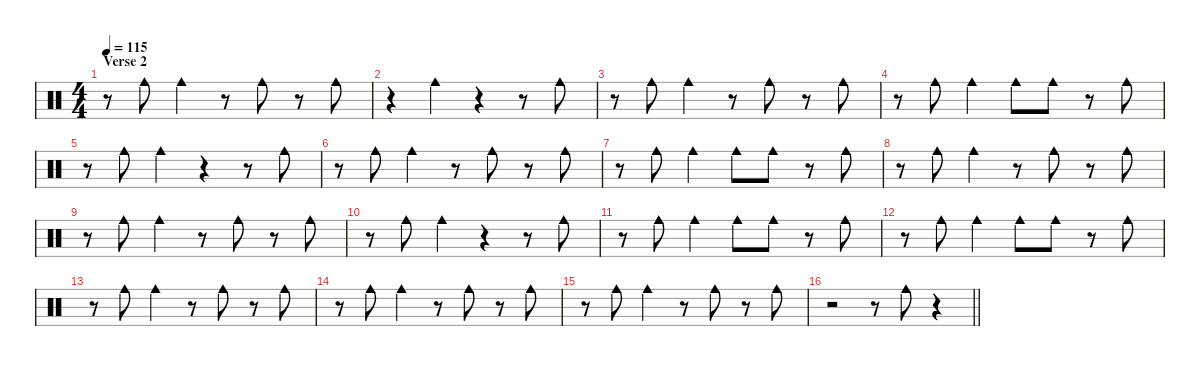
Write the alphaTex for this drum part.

\defaultSystemsLayout 4
\hideDynamics
\bracketExtendMode nobrackets
\singleTrackTrackNamePolicy hidden
\multiTrackTrackNamePolicy hidden
\otherSystemsTrackNameOrientation horizontal
\track ("Cowbell" "drm.") {defaultSystemsLayout 8 instrument percussion}
\staff {score}
\articulation defaults
\ts (4 4)
\section ("" "Verse 2")
\tempo 115
\clef neutral
\ks c
r.8{dy f} "Cowbell medium (hit)".8 "Cowbell medium (hit)".4 r.8 "Cowbell medium (hit)".8 r.8 "Cowbell medium (hit)".8 |
r.4 "Cowbell medium (hit)".4 r.4 r.8 "Cowbell medium (hit)".8 |
r.8 "Cowbell medium (hit)".8 "Cowbell medium (hit)".4 r.8 "Cowbell medium (hit)".8 r.8 "Cowbell medium (hit)".8 |
r.8 "Cowbell medium (hit)".8 "Cowbell medium (hit)".4 "Cowbell medium (hit)".8 "Cowbell medium (hit)".8 r.8 "Cowbell medium (hit)".8 |
r.8 "Cowbell medium (hit)".8 "Cowbell medium (hit)".4 r.4 r.8 "Cowbell medium (hit)".8 |
r.8 "Cowbell medium (hit)".8 "Cowbell medium (hit)".4 r.8 "Cowbell medium (hit)".8 r.8 "Cowbell medium (hit)".8 |
r.8 "Cowbell medium (hit)".8 "Cowbell medium (hit)".4 "Cowbell medium (hit)".8 "Cowbell medium (hit)".8 r.8 "Cowbell medium (hit)".8 |
r.8 "Cowbell medium (hit)".8 "Cowbell medium (hit)".4 r.8 "Cowbell medium (hit)".8 r.8 "Cowbell medium (hit)".8 |
r.8 "Cowbell medium (hit)".8 "Cowbell medium (hit)".4 r.8 "Cowbell medium (hit)".8 r.8 "Cowbell medium (hit)".8 |
r.8 "Cowbell medium (hit)".8 "Cowbell medium (hit)".4 r.4 r.8 "Cowbell medium (hit)".8 |
r.8 "Cowbell medium (hit)".8 "Cowbell medium (hit)".4 "Cowbell medium (hit)".8 "Cowbell medium (hit)".8 r.8 "Cowbell medium (hit)".8 |
r.8 "Cowbell medium (hit)".8 "Cowbell medium (hit)".4 "Cowbell medium (hit)".8 "Cowbell medium (hit)".8 r.8 "Cowbell medium (hit)".8 |
r.8 "Cowbell medium (hit)".8 "Cowbell medium (hit)".4 r.8 "Cowbell medium (hit)".8 r.8 "Cowbell medium (hit)".8 |
r.8 "Cowbell medium (hit)".8 "Cowbell medium (hit)".4 r.8 "Cowbell medium (hit)".8 r.8 "Cowbell medium (hit)".8 |
r.8 "Cowbell medium (hit)".8 "Cowbell medium (hit)".4 r.8 "Cowbell medium (hit)".8 r.8 "Cowbell medium (hit)".8 |
\barLineRight lightlight
r.2 r.8 "Cowbell medium (hit)".8 r.4
